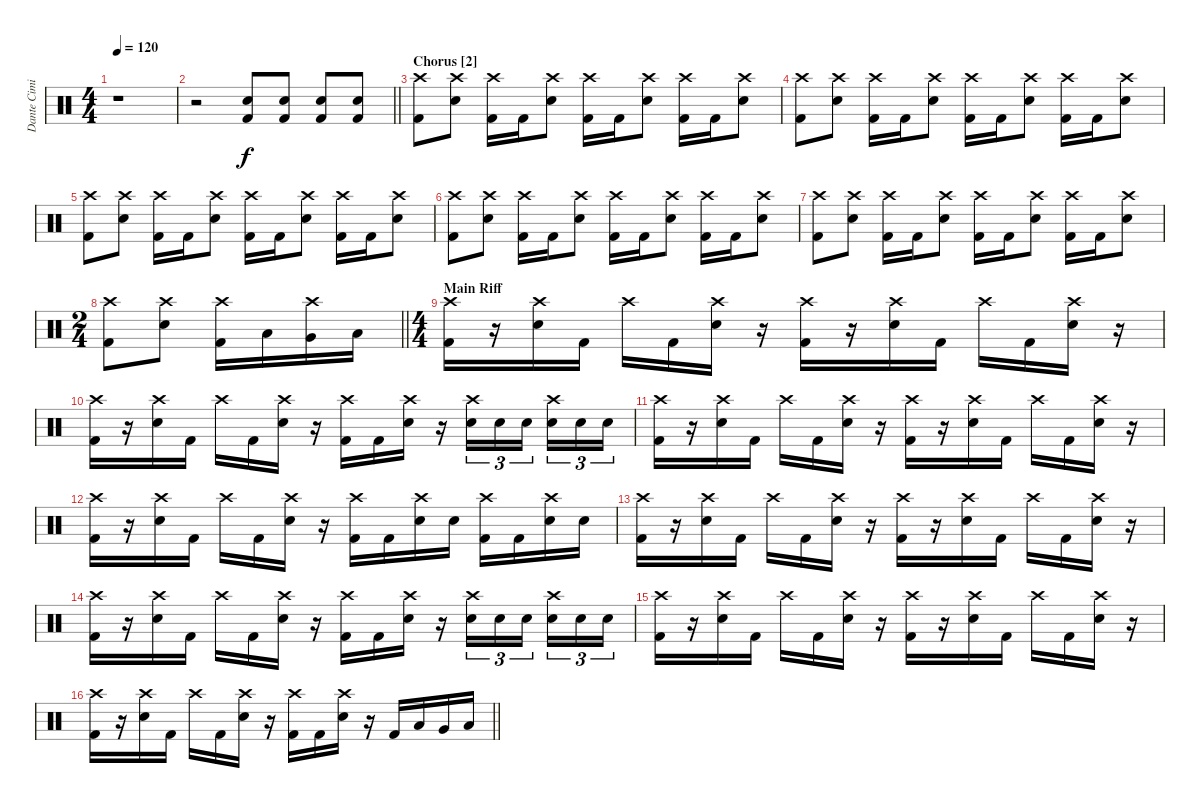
\track ("Dante Cimino" "Dante Cimi") {instrument percussion}
\staff {score}
\articulation defaults
\ts (4 4)
\tempo 120
\clef neutral
\ks c
r.1{dy f} |
\barLineRight lightlight
r.2 ("Electric Snare (hit)" "Kick (hit) 2").8 ("Electric Snare (hit)" "Kick (hit) 2").8 ("Electric Snare (hit)" "Kick (hit) 2").8 ("Electric Snare (hit)" "Kick (hit) 2").8 |
\section ("" "Chorus [2]")
("Crash high (hit)" "Kick (hit) 2").8 ("Crash high (hit)" "Electric Snare (hit)").8 ("Crash high (hit)" "Kick (hit) 2").16 "Kick (hit) 2".16 ("Crash high (hit)" "Electric Snare (hit)").8 ("Crash high (hit)" "Kick (hit) 2").16 "Kick (hit) 2".16 ("Crash high (hit)" "Electric Snare (hit)").8 ("Crash high (hit)" "Kick (hit) 2").16 "Kick (hit) 2".16 ("Crash high (hit)" "Electric Snare (hit)").8 |
("Crash high (hit)" "Kick (hit) 2").8 ("Crash high (hit)" "Electric Snare (hit)").8 ("Crash high (hit)" "Kick (hit) 2").16 "Kick (hit) 2".16 ("Crash high (hit)" "Electric Snare (hit)").8 ("Crash high (hit)" "Kick (hit) 2").16 "Kick (hit) 2".16 ("Crash high (hit)" "Electric Snare (hit)").8 ("Crash high (hit)" "Kick (hit) 2").16 "Kick (hit) 2".16 ("Crash high (hit)" "Electric Snare (hit)").8 |
("Crash high (hit)" "Kick (hit) 2").8 ("Crash high (hit)" "Electric Snare (hit)").8 ("Crash high (hit)" "Kick (hit) 2").16 "Kick (hit) 2".16 ("Crash high (hit)" "Electric Snare (hit)").8 ("Crash high (hit)" "Kick (hit) 2").16 "Kick (hit) 2".16 ("Crash high (hit)" "Electric Snare (hit)").8 ("Crash high (hit)" "Kick (hit) 2").16 "Kick (hit) 2".16 ("Crash high (hit)" "Electric Snare (hit)").8 |
("Crash high (hit)" "Kick (hit) 2").8 ("Crash high (hit)" "Electric Snare (hit)").8 ("Crash high (hit)" "Kick (hit) 2").16 "Kick (hit) 2".16 ("Crash high (hit)" "Electric Snare (hit)").8 ("Crash high (hit)" "Kick (hit) 2").16 "Kick (hit) 2".16 ("Crash high (hit)" "Electric Snare (hit)").8 ("Crash high (hit)" "Kick (hit) 2").16 "Kick (hit) 2".16 ("Crash high (hit)" "Electric Snare (hit)").8 |
("Crash high (hit)" "Kick (hit) 2").8 ("Crash high (hit)" "Electric Snare (hit)").8 ("Crash high (hit)" "Kick (hit) 2").16 "Kick (hit) 2".16 ("Crash high (hit)" "Electric Snare (hit)").8 ("Crash high (hit)" "Kick (hit) 2").16 "Kick (hit) 2".16 ("Crash high (hit)" "Electric Snare (hit)").8 ("Crash high (hit)" "Kick (hit) 2").16 "Kick (hit) 2".16 ("Crash high (hit)" "Electric Snare (hit)").8 |
\ts (2 4)
\barLineRight lightlight
("Crash high (hit)" "Kick (hit) 2").8 ("Crash high (hit)" "Electric Snare (hit)").8 ("Crash high (hit)" "Kick (hit) 2").16 "Low Tom (hit)".16 ("Crash high (hit)" "Very Low Tom (hit)").16 "Low Floor Tom (hit)".16 |
\ts (4 4)
\section ("" "Main Riff")
("Crash high (hit)" "Kick (hit) 2").16 r.16 ("Crash high (hit)" "Electric Snare (hit)").16 "Kick (hit) 2".16 "Crash high (hit)".16 "Kick (hit) 2".16 ("Crash high (hit)" "Electric Snare (hit)").16 r.16 ("Crash high (hit)" "Kick (hit) 2").16 r.16 ("Crash high (hit)" "Electric Snare (hit)").16 "Kick (hit) 2".16 "Crash high (hit)".16 "Kick (hit) 2".16 ("Crash high (hit)" "Electric Snare (hit)").16 r.16 |
("Crash high (hit)" "Kick (hit) 2").16 r.16 ("Crash high (hit)" "Electric Snare (hit)").16 "Kick (hit) 2".16 "Crash high (hit)".16 "Kick (hit) 2".16 ("Crash high (hit)" "Electric Snare (hit)").16 r.16 ("Crash high (hit)" "Kick (hit) 2").16 "Kick (hit) 2".16 ("Crash high (hit)" "Electric Snare (hit)").16 r.16 ("Crash high (hit)" "Electric Snare (hit)").16{tu (3 2)} "Electric Snare (hit)".16{tu (3 2)} "Electric Snare (hit)".16{tu (3 2) beam splitsecondary} ("Crash high (hit)" "Electric Snare (hit)").16{tu (3 2)} "Electric Snare (hit)".16{tu (3 2)} "Electric Snare (hit)".16{tu (3 2)} |
("Crash high (hit)" "Kick (hit) 2").16 r.16 ("Crash high (hit)" "Electric Snare (hit)").16 "Kick (hit) 2".16 "Crash high (hit)".16 "Kick (hit) 2".16 ("Crash high (hit)" "Electric Snare (hit)").16 r.16 ("Crash high (hit)" "Kick (hit) 2").16 r.16 ("Crash high (hit)" "Electric Snare (hit)").16 "Kick (hit) 2".16 "Crash high (hit)".16 "Kick (hit) 2".16 ("Crash high (hit)" "Electric Snare (hit)").16 r.16 |
("Crash high (hit)" "Kick (hit) 2").16 r.16 ("Crash high (hit)" "Electric Snare (hit)").16 "Kick (hit) 2".16 "Crash high (hit)".16 "Kick (hit) 2".16 ("Crash high (hit)" "Electric Snare (hit)").16 r.16 ("Crash high (hit)" "Kick (hit) 2").16 "Kick (hit) 2".16 ("Crash high (hit)" "Electric Snare (hit)").16 "Electric Snare (hit)".16 ("Crash high (hit)" "Kick (hit) 2").16 "Kick (hit) 2".16 ("Crash high (hit)" "Electric Snare (hit)").16 "Electric Snare (hit)".16 |
("Crash high (hit)" "Kick (hit) 2").16 r.16 ("Crash high (hit)" "Electric Snare (hit)").16 "Kick (hit) 2".16 "Crash high (hit)".16 "Kick (hit) 2".16 ("Crash high (hit)" "Electric Snare (hit)").16 r.16 ("Crash high (hit)" "Kick (hit) 2").16 r.16 ("Crash high (hit)" "Electric Snare (hit)").16 "Kick (hit) 2".16 "Crash high (hit)".16 "Kick (hit) 2".16 ("Crash high (hit)" "Electric Snare (hit)").16 r.16 |
("Crash high (hit)" "Kick (hit) 2").16 r.16 ("Crash high (hit)" "Electric Snare (hit)").16 "Kick (hit) 2".16 "Crash high (hit)".16 "Kick (hit) 2".16 ("Crash high (hit)" "Electric Snare (hit)").16 r.16 ("Crash high (hit)" "Kick (hit) 2").16 "Kick (hit) 2".16 ("Crash high (hit)" "Electric Snare (hit)").16 r.16 ("Crash high (hit)" "Electric Snare (hit)").16{tu (3 2)} "Electric Snare (hit)".16{tu (3 2)} "Electric Snare (hit)".16{tu (3 2) beam splitsecondary} ("Crash high (hit)" "Electric Snare (hit)").16{tu (3 2)} "Electric Snare (hit)".16{tu (3 2)} "Electric Snare (hit)".16{tu (3 2)} |
("Crash high (hit)" "Kick (hit) 2").16 r.16 ("Crash high (hit)" "Electric Snare (hit)").16 "Kick (hit) 2".16 "Crash high (hit)".16 "Kick (hit) 2".16 ("Crash high (hit)" "Electric Snare (hit)").16 r.16 ("Crash high (hit)" "Kick (hit) 2").16 r.16 ("Crash high (hit)" "Electric Snare (hit)").16 "Kick (hit) 2".16 "Crash high (hit)".16 "Kick (hit) 2".16 ("Crash high (hit)" "Electric Snare (hit)").16 r.16 |
\barLineRight lightlight
("Crash high (hit)" "Kick (hit) 2").16 r.16 ("Crash high (hit)" "Electric Snare (hit)").16 "Kick (hit) 2".16 "Crash high (hit)".16 "Kick (hit) 2".16 ("Crash high (hit)" "Electric Snare (hit)").16 r.16 ("Crash high (hit)" "Kick (hit) 2").16 "Kick (hit) 2".16 ("Crash high (hit)" "Electric Snare (hit)").16 r.16 "Kick (hit) 2".16 "Low Tom (hit)".16 "Very Low Tom (hit)".16 "Low Floor Tom (hit)".16
